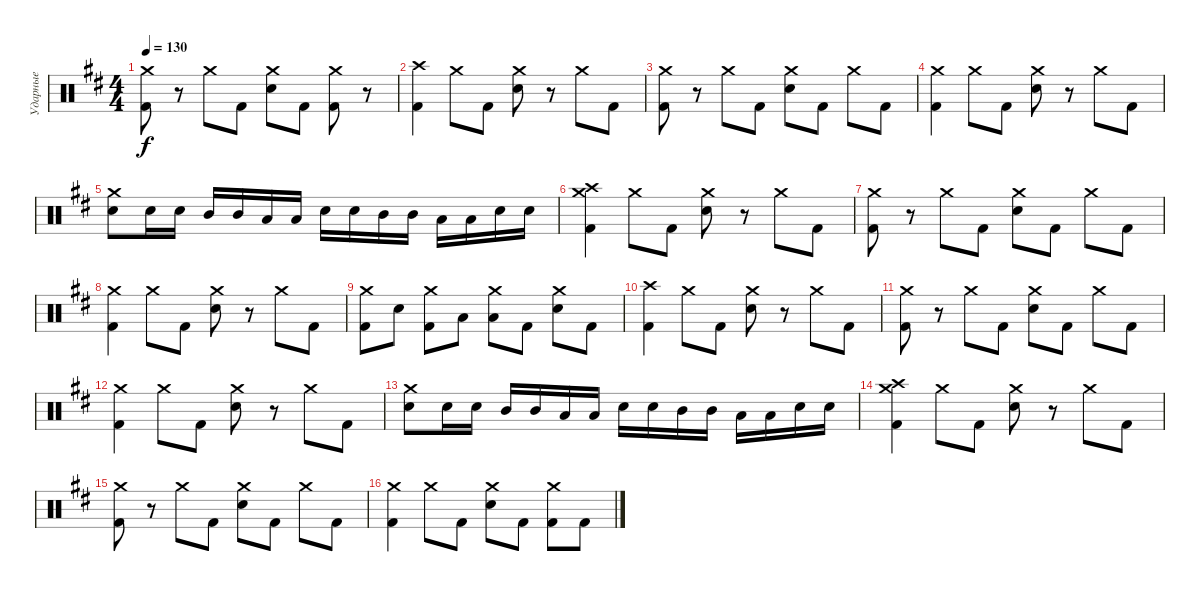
\track ("Ударные" "Ударные") {instrument percussion}
\staff {score}
\articulation defaults
\ts (4 4)
\tempo 130
\clef neutral
\ks d
("Crash medium (hit)" "Kick (hit) 2").8{dy f} r.8 "Crash medium (hit)".8 "Kick (hit) 2".8 ("Crash medium (hit)" "Electric Snare (hit)").8 "Kick (hit) 2".8 ("Crash medium (hit)" "Kick (hit) 2").8 r.8 |
("Crash high (hit)" "Kick (hit) 2").4 "Crash medium (hit)".8 "Kick (hit) 2".8 ("Crash medium (hit)" "Electric Snare (hit)").8 r.8 "Crash medium (hit)".8 "Kick (hit) 2".8 |
("Crash medium (hit)" "Kick (hit) 2").8 r.8 "Crash medium (hit)".8 "Kick (hit) 2".8 ("Crash medium (hit)" "Electric Snare (hit)").8 "Kick (hit) 2".8 "Crash medium (hit)".8 "Kick (hit) 2".8 |
("Crash medium (hit)" "Kick (hit) 2").4 "Crash medium (hit)".8 "Kick (hit) 2".8 ("Crash medium (hit)" "Electric Snare (hit)").8 r.8 "Crash medium (hit)".8 "Kick (hit) 2".8 |
("Crash medium (hit)" "Electric Snare (hit)").8 "Electric Snare (hit)".16 "Electric Snare (hit)".16 "Mid Tom (hit)".16 "Mid Tom (hit)".16 "Low Tom (hit)".16 "Low Tom (hit)".16 "Electric Snare (hit)".16 "Electric Snare (hit)".16 "Mid Tom (hit)".16 "Mid Tom (hit)".16 "Low Tom (hit)".16 "Low Tom (hit)".16 "Electric Snare (hit)".16 "Electric Snare (hit)".16 |
("Crash medium (hit)" "Crash high (hit)" "Kick (hit) 2").4 "Crash medium (hit)".8 "Kick (hit) 2".8 ("Crash medium (hit)" "Electric Snare (hit)").8 r.8 "Crash medium (hit)".8 "Kick (hit) 2".8 |
("Crash medium (hit)" "Kick (hit) 2").8 r.8 "Crash medium (hit)".8 "Kick (hit) 2".8 ("Crash medium (hit)" "Electric Snare (hit)").8 "Kick (hit) 2".8 "Crash medium (hit)".8 "Kick (hit) 2".8 |
("Crash medium (hit)" "Kick (hit) 2").4 "Crash medium (hit)".8 "Kick (hit) 2".8 ("Crash medium (hit)" "Electric Snare (hit)").8 r.8 "Crash medium (hit)".8 "Kick (hit) 2".8 |
("Crash medium (hit)" "Kick (hit) 2").8 "Electric Snare (hit)".8 ("Crash medium (hit)" "Kick (hit) 2").8 "Low Tom (hit)".8 ("Crash medium (hit)" "Low Tom (hit)").8 "Kick (hit) 2".8 ("Crash medium (hit)" "Electric Snare (hit)").8 "Kick (hit) 2".8 |
("Crash high (hit)" "Kick (hit) 2").4 "Crash medium (hit)".8 "Kick (hit) 2".8 ("Crash medium (hit)" "Electric Snare (hit)").8 r.8 "Crash medium (hit)".8 "Kick (hit) 2".8 |
("Crash medium (hit)" "Kick (hit) 2").8 r.8 "Crash medium (hit)".8 "Kick (hit) 2".8 ("Crash medium (hit)" "Electric Snare (hit)").8 "Kick (hit) 2".8 "Crash medium (hit)".8 "Kick (hit) 2".8 |
("Crash medium (hit)" "Kick (hit) 2").4 "Crash medium (hit)".8 "Kick (hit) 2".8 ("Crash medium (hit)" "Electric Snare (hit)").8 r.8 "Crash medium (hit)".8 "Kick (hit) 2".8 |
("Crash medium (hit)" "Electric Snare (hit)").8 "Electric Snare (hit)".16 "Electric Snare (hit)".16 "Mid Tom (hit)".16 "Mid Tom (hit)".16 "Low Tom (hit)".16 "Low Tom (hit)".16 "Electric Snare (hit)".16 "Electric Snare (hit)".16 "Mid Tom (hit)".16 "Mid Tom (hit)".16 "Low Tom (hit)".16 "Low Tom (hit)".16 "Electric Snare (hit)".16 "Electric Snare (hit)".16 |
("Crash medium (hit)" "Crash high (hit)" "Kick (hit) 2").4 "Crash medium (hit)".8 "Kick (hit) 2".8 ("Crash medium (hit)" "Electric Snare (hit)").8 r.8 "Crash medium (hit)".8 "Kick (hit) 2".8 |
("Crash medium (hit)" "Kick (hit) 2").8 r.8 "Crash medium (hit)".8 "Kick (hit) 2".8 ("Crash medium (hit)" "Electric Snare (hit)").8 "Kick (hit) 2".8 "Crash medium (hit)".8 "Kick (hit) 2".8 |
("Crash medium (hit)" "Kick (hit) 2").4 "Crash medium (hit)".8 "Kick (hit) 2".8 ("Crash medium (hit)" "Electric Snare (hit)").8 "Kick (hit) 2".8 ("Crash medium (hit)" "Kick (hit) 2").8 "Kick (hit) 2".8
